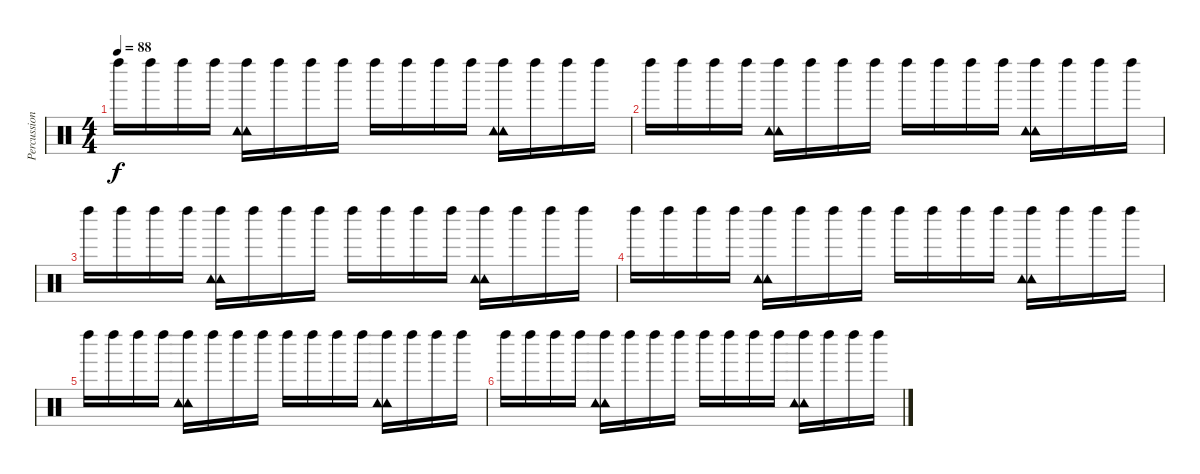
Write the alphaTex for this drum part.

\track ("Percussioni" "Percussion") {instrument percussion}
\staff {score}
\articulation defaults
\ts (4 4)
\tempo 88
\clef neutral
\ks c "Left Maraca (hit)".16{dy f} "Left Maraca (hit)".16 "Left Maraca (hit)".16 "Left Maraca (hit)".16
("Left Maraca (hit)" "Tambourine (hit)" "Tambourine (hit)").16 "Left Maraca (hit)".16 "Left Maraca (hit)".16 "Left Maraca (hit)".16 "Left Maraca (hit)".16 "Left Maraca (hit)".16 "Left Maraca (hit)".16 "Left Maraca (hit)".16 ("Left Maraca (hit)" "Tambourine (hit)" "Tambourine (hit)").16 "Left Maraca (hit)".16 "Left Maraca (hit)".16 "Left Maraca (hit)".16 |
"Left Maraca (hit)".16 "Left Maraca (hit)".16 "Left Maraca (hit)".16 "Left Maraca (hit)".16 ("Left Maraca (hit)" "Tambourine (hit)" "Tambourine (hit)").16 "Left Maraca (hit)".16 "Left Maraca (hit)".16 "Left Maraca (hit)".16 "Left Maraca (hit)".16 "Left Maraca (hit)".16 "Left Maraca (hit)".16 "Left Maraca (hit)".16 ("Left Maraca (hit)" "Tambourine (hit)" "Tambourine (hit)").16 "Left Maraca (hit)".16 "Left Maraca (hit)".16 "Left Maraca (hit)".16 |
"Left Maraca (hit)".16 "Left Maraca (hit)".16 "Left Maraca (hit)".16 "Left Maraca (hit)".16 ("Left Maraca (hit)" "Tambourine (hit)" "Tambourine (hit)").16 "Left Maraca (hit)".16 "Left Maraca (hit)".16 "Left Maraca (hit)".16 "Left Maraca (hit)".16 "Left Maraca (hit)".16 "Left Maraca (hit)".16 "Left Maraca (hit)".16 ("Left Maraca (hit)" "Tambourine (hit)" "Tambourine (hit)").16 "Left Maraca (hit)".16 "Left Maraca (hit)".16 "Left Maraca (hit)".16 |
"Left Maraca (hit)".16 "Left Maraca (hit)".16 "Left Maraca (hit)".16 "Left Maraca (hit)".16 ("Left Maraca (hit)" "Tambourine (hit)" "Tambourine (hit)").16 "Left Maraca (hit)".16 "Left Maraca (hit)".16 "Left Maraca (hit)".16 "Left Maraca (hit)".16 "Left Maraca (hit)".16 "Left Maraca (hit)".16 "Left Maraca (hit)".16 ("Left Maraca (hit)" "Tambourine (hit)" "Tambourine (hit)").16 "Left Maraca (hit)".16 "Left Maraca (hit)".16 "Left Maraca (hit)".16 |
"Left Maraca (hit)".16 "Left Maraca (hit)".16 "Left Maraca (hit)".16 "Left Maraca (hit)".16 ("Left Maraca (hit)" "Tambourine (hit)" "Tambourine (hit)").16 "Left Maraca (hit)".16 "Left Maraca (hit)".16 "Left Maraca (hit)".16 "Left Maraca (hit)".16 "Left Maraca (hit)".16 "Left Maraca (hit)".16 "Left Maraca (hit)".16 ("Left Maraca (hit)" "Tambourine (hit)" "Tambourine (hit)").16 "Left Maraca (hit)".16 "Left Maraca (hit)".16 "Left Maraca (hit)".16 |
"Left Maraca (hit)".16 "Left Maraca (hit)".16 "Left Maraca (hit)".16 "Left Maraca (hit)".16 ("Left Maraca (hit)" "Tambourine (hit)" "Tambourine (hit)").16 "Left Maraca (hit)".16 "Left Maraca (hit)".16 "Left Maraca (hit)".16 "Left Maraca (hit)".16 "Left Maraca (hit)".16 "Left Maraca (hit)".16 "Left Maraca (hit)".16 ("Left Maraca (hit)" "Tambourine (hit)" "Tambourine (hit)").16 "Left Maraca (hit)".16 "Left Maraca (hit)".16 "Left Maraca (hit)".16
